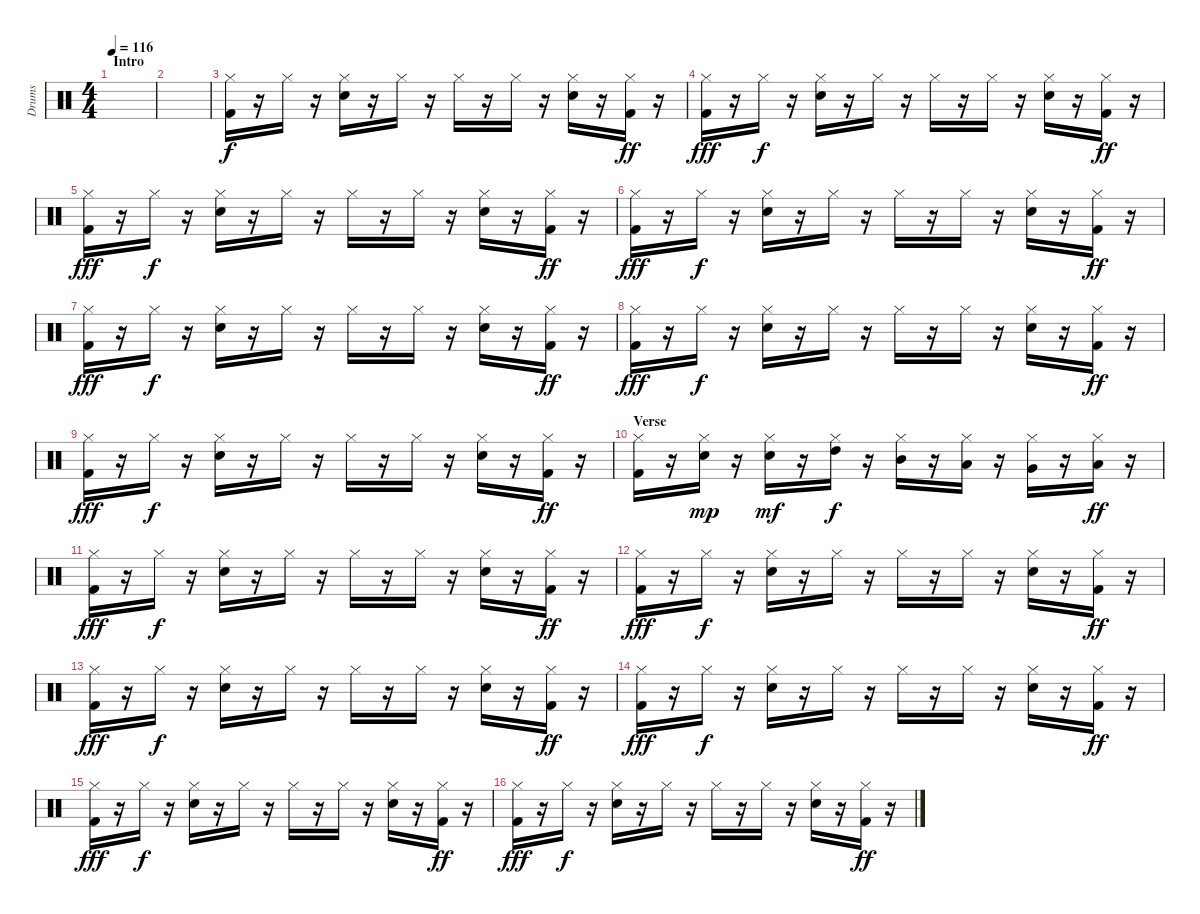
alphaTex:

\track ("Drums" "Drums") {instrument percussion}
\staff {score}
\articulation defaults
\ts (4 4)
\section ("" "Intro")
\tempo 116
\clef neutral
\ks c
|
|
("Hi-Hat (closed)" "Kick (hit) 2").16 r.16 "Hi-Hat (closed)".16{dy f} r.16 ("Hi-Hat (closed)" "Electric Snare (hit)").16 r.16 "Hi-Hat (closed)".16 r.16 "Hi-Hat (closed)".16 r.16 "Hi-Hat (closed)".16 r.16 ("Hi-Hat (closed)" "Electric Snare (hit)").16 r.16 ("Hi-Hat (closed)" "Kick (hit) 2").16{dy ff} r.16 |
("Hi-Hat (closed)" "Kick (hit) 2").16{dy fff} r.16 "Hi-Hat (closed)".16{dy f} r.16 ("Hi-Hat (closed)" "Electric Snare (hit)").16 r.16 "Hi-Hat (closed)".16 r.16 "Hi-Hat (closed)".16 r.16 "Hi-Hat (closed)".16 r.16 ("Hi-Hat (closed)" "Electric Snare (hit)").16 r.16 ("Hi-Hat (closed)" "Kick (hit) 2").16{dy ff} r.16 |
("Hi-Hat (closed)" "Kick (hit) 2").16{dy fff} r.16 "Hi-Hat (closed)".16{dy f} r.16 ("Hi-Hat (closed)" "Electric Snare (hit)").16 r.16 "Hi-Hat (closed)".16 r.16 "Hi-Hat (closed)".16 r.16 "Hi-Hat (closed)".16 r.16 ("Hi-Hat (closed)" "Electric Snare (hit)").16 r.16 ("Hi-Hat (closed)" "Kick (hit) 2").16{dy ff} r.16 |
("Hi-Hat (closed)" "Kick (hit) 2").16{dy fff} r.16 "Hi-Hat (closed)".16{dy f} r.16 ("Hi-Hat (closed)" "Electric Snare (hit)").16 r.16 "Hi-Hat (closed)".16 r.16 "Hi-Hat (closed)".16 r.16 "Hi-Hat (closed)".16 r.16 ("Hi-Hat (closed)" "Electric Snare (hit)").16 r.16 ("Hi-Hat (closed)" "Kick (hit) 2").16{dy ff} r.16 |
("Hi-Hat (closed)" "Kick (hit) 2").16{dy fff} r.16 "Hi-Hat (closed)".16{dy f} r.16 ("Hi-Hat (closed)" "Electric Snare (hit)").16 r.16 "Hi-Hat (closed)".16 r.16 "Hi-Hat (closed)".16 r.16 "Hi-Hat (closed)".16 r.16 ("Hi-Hat (closed)" "Electric Snare (hit)").16 r.16 ("Hi-Hat (closed)" "Kick (hit) 2").16{dy ff} r.16 |
("Hi-Hat (closed)" "Kick (hit) 2").16{dy fff} r.16 "Hi-Hat (closed)".16{dy f} r.16 ("Hi-Hat (closed)" "Electric Snare (hit)").16 r.16 "Hi-Hat (closed)".16 r.16 "Hi-Hat (closed)".16 r.16 "Hi-Hat (closed)".16 r.16 ("Hi-Hat (closed)" "Electric Snare (hit)").16 r.16 ("Hi-Hat (closed)" "Kick (hit) 2").16{dy ff} r.16 |
("Hi-Hat (closed)" "Kick (hit) 2").16{dy fff} r.16 "Hi-Hat (closed)".16{dy f} r.16 ("Hi-Hat (closed)" "Electric Snare (hit)").16 r.16 "Hi-Hat (closed)".16 r.16 "Hi-Hat (closed)".16 r.16 "Hi-Hat (closed)".16 r.16 ("Hi-Hat (closed)" "Electric Snare (hit)").16 r.16 ("Hi-Hat (closed)" "Kick (hit) 2").16{dy ff} r.16 |
\section ("" "Verse")
("Hi-Hat (closed)" "Kick (hit) 2").16 r.16 ("Hi-Hat (closed)" "Electric Snare (hit)").16{dy mp} r.16 ("Hi-Hat (closed)" "Snare (hit) 2").16{dy mf} r.16 ("Hi-Hat (closed)" "High Tom (hit)").16{dy f} r.16 ("Hi-Hat (closed)" "Mid Tom (hit)").16 r.16 ("Hi-Hat (closed)" "Low Tom (hit)").16 r.16 ("Hi-Hat (closed)" "Very Low Tom (hit)").16 r.16 ("Hi-Hat (closed)" "Low Floor Tom (hit)").16{dy ff} r.16 |
("Hi-Hat (closed)" "Kick (hit) 2").16{dy fff} r.16 "Hi-Hat (closed)".16{dy f} r.16 ("Hi-Hat (closed)" "Electric Snare (hit)").16 r.16 "Hi-Hat (closed)".16 r.16 "Hi-Hat (closed)".16 r.16 "Hi-Hat (closed)".16 r.16 ("Hi-Hat (closed)" "Electric Snare (hit)").16 r.16 ("Hi-Hat (closed)" "Kick (hit) 2").16{dy ff} r.16 |
("Hi-Hat (closed)" "Kick (hit) 2").16{dy fff} r.16 "Hi-Hat (closed)".16{dy f} r.16 ("Hi-Hat (closed)" "Electric Snare (hit)").16 r.16 "Hi-Hat (closed)".16 r.16 "Hi-Hat (closed)".16 r.16 "Hi-Hat (closed)".16 r.16 ("Hi-Hat (closed)" "Electric Snare (hit)").16 r.16 ("Hi-Hat (closed)" "Kick (hit) 2").16{dy ff} r.16 |
("Hi-Hat (closed)" "Kick (hit) 2").16{dy fff} r.16 "Hi-Hat (closed)".16{dy f} r.16 ("Hi-Hat (closed)" "Electric Snare (hit)").16 r.16 "Hi-Hat (closed)".16 r.16 "Hi-Hat (closed)".16 r.16 "Hi-Hat (closed)".16 r.16 ("Hi-Hat (closed)" "Electric Snare (hit)").16 r.16 ("Hi-Hat (closed)" "Kick (hit) 2").16{dy ff} r.16 |
("Hi-Hat (closed)" "Kick (hit) 2").16{dy fff} r.16 "Hi-Hat (closed)".16{dy f} r.16 ("Hi-Hat (closed)" "Electric Snare (hit)").16 r.16 "Hi-Hat (closed)".16 r.16 "Hi-Hat (closed)".16 r.16 "Hi-Hat (closed)".16 r.16 ("Hi-Hat (closed)" "Electric Snare (hit)").16 r.16 ("Hi-Hat (closed)" "Kick (hit) 2").16{dy ff} r.16 |
("Hi-Hat (closed)" "Kick (hit) 2").16{dy fff} r.16 "Hi-Hat (closed)".16{dy f} r.16 ("Hi-Hat (closed)" "Electric Snare (hit)").16 r.16 "Hi-Hat (closed)".16 r.16 "Hi-Hat (closed)".16 r.16 "Hi-Hat (closed)".16 r.16 ("Hi-Hat (closed)" "Electric Snare (hit)").16 r.16 ("Hi-Hat (closed)" "Kick (hit) 2").16{dy ff} r.16 |
("Hi-Hat (closed)" "Kick (hit) 2").16{dy fff} r.16 "Hi-Hat (closed)".16{dy f} r.16 ("Hi-Hat (closed)" "Electric Snare (hit)").16 r.16 "Hi-Hat (closed)".16 r.16 "Hi-Hat (closed)".16 r.16 "Hi-Hat (closed)".16 r.16 ("Hi-Hat (closed)" "Electric Snare (hit)").16 r.16 ("Hi-Hat (closed)" "Kick (hit) 2").16{dy ff} r.16
